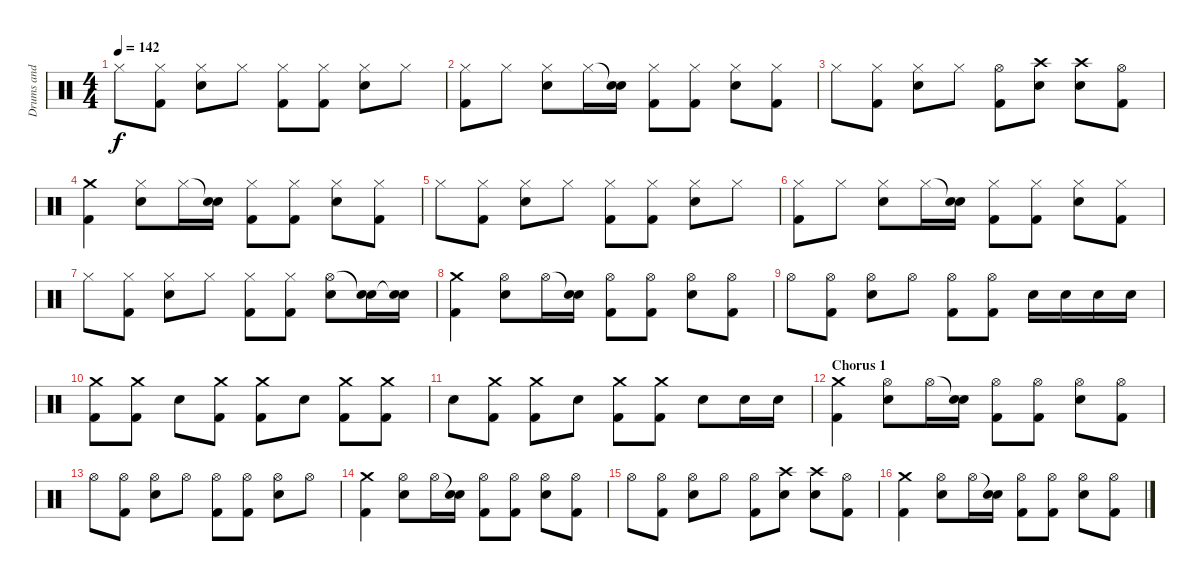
\track ("Drums and Percussion" "Drums and ") {instrument percussion}
\staff {score}
\articulation defaults
\ts (4 4)
\tempo 142
\clef neutral
\ks c "Hi-Hat (closed)".8{dy f}
("Hi-Hat (closed)" "Kick (hit) 2").8 ("Hi-Hat (closed)" "Electric Snare (hit)").8 "Hi-Hat (closed)".8 ("Hi-Hat (closed)" "Kick (hit) 2").8 ("Hi-Hat (closed)" "Kick (hit) 2").8 ("Hi-Hat (closed)" "Electric Snare (hit)").8 "Hi-Hat (closed)".8 |
("Hi-Hat (closed)" "Kick (hit) 2").8 "Hi-Hat (closed)".8 ("Hi-Hat (closed)" "Electric Snare (hit)").8 "Hi-Hat (closed)".16 ("Snare (hit)"{t} "Electric Snare (hit)").16 ("Hi-Hat (closed)" "Kick (hit) 2").8 ("Hi-Hat (closed)" "Kick (hit) 2").8 ("Hi-Hat (closed)" "Electric Snare (hit)").8 ("Hi-Hat (closed)" "Kick (hit) 2").8 |
"Hi-Hat (closed)".8 ("Hi-Hat (closed)" "Kick (hit) 2").8 ("Hi-Hat (closed)" "Electric Snare (hit)").8 "Hi-Hat (closed)".8 ("Hi-Hat (open)" "Kick (hit) 2").8 ("Crash high (hit)" "Electric Snare (hit)").8 ("Crash high (hit)" "Electric Snare (hit)").8 ("Hi-Hat (open)" "Kick (hit) 2").8 |
("Crash medium (hit)" "Kick (hit) 2").4 ("Hi-Hat (closed)" "Electric Snare (hit)").8 "Hi-Hat (closed)".16 ("Snare (hit)"{t} "Electric Snare (hit)").16 ("Hi-Hat (closed)" "Kick (hit) 2").8 ("Hi-Hat (closed)" "Kick (hit) 2").8 ("Hi-Hat (closed)" "Electric Snare (hit)").8 ("Hi-Hat (closed)" "Kick (hit) 2").8 |
"Hi-Hat (closed)".8 ("Hi-Hat (closed)" "Kick (hit) 2").8 ("Hi-Hat (closed)" "Electric Snare (hit)").8 "Hi-Hat (closed)".8 ("Hi-Hat (closed)" "Kick (hit) 2").8 ("Hi-Hat (closed)" "Kick (hit) 2").8 ("Hi-Hat (closed)" "Electric Snare (hit)").8 "Hi-Hat (closed)".8 |
("Hi-Hat (closed)" "Kick (hit) 2").8 "Hi-Hat (closed)".8 ("Hi-Hat (closed)" "Electric Snare (hit)").8 "Hi-Hat (closed)".16 ("Snare (hit)"{t} "Electric Snare (hit)").16 ("Hi-Hat (closed)" "Kick (hit) 2").8 ("Hi-Hat (closed)" "Kick (hit) 2").8 ("Hi-Hat (closed)" "Electric Snare (hit)").8 ("Hi-Hat (closed)" "Kick (hit) 2").8 |
"Hi-Hat (closed)".8 ("Hi-Hat (closed)" "Kick (hit) 2").8 ("Hi-Hat (closed)" "Electric Snare (hit)").8 "Hi-Hat (closed)".8 ("Hi-Hat (closed)" "Kick (hit) 2").8 ("Hi-Hat (closed)" "Kick (hit) 2").8 ("Hi-Hat (open)" "Electric Snare (hit)").8 ("Snare (hit)"{t} "Electric Snare (hit)").16 ("Snare (hit)"{t} "Electric Snare (hit)").16 |
("Crash medium (hit)" "Kick (hit) 2").4 ("Hi-Hat (open)" "Electric Snare (hit)").8 "Hi-Hat (open)".16 ("Snare (hit)"{t} "Electric Snare (hit)").16 ("Hi-Hat (open)" "Kick (hit) 2").8 ("Hi-Hat (open)" "Kick (hit) 2").8 ("Hi-Hat (open)" "Electric Snare (hit)").8 ("Hi-Hat (open)" "Kick (hit) 2").8 |
"Hi-Hat (open)".8 ("Hi-Hat (open)" "Kick (hit) 2").8 ("Hi-Hat (open)" "Electric Snare (hit)").8 "Hi-Hat (open)".8 ("Hi-Hat (open)" "Kick (hit) 2").8 ("Hi-Hat (open)" "Kick (hit) 2").8 "Electric Snare (hit)".16 "Electric Snare (hit)".16 "Electric Snare (hit)".16 "Electric Snare (hit)".16 |
("Crash medium (hit)" "Kick (hit) 2").8 ("Crash medium (hit)" "Kick (hit) 2").8 "Electric Snare (hit)".8 ("Crash medium (hit)" "Kick (hit) 2").8 ("Crash medium (hit)" "Kick (hit) 2").8 "Electric Snare (hit)".8 ("Crash medium (hit)" "Kick (hit) 2").8 ("Crash medium (hit)" "Kick (hit) 2").8 |
"Electric Snare (hit)".8 ("Crash medium (hit)" "Kick (hit) 2").8 ("Crash medium (hit)" "Kick (hit) 2").8 "Electric Snare (hit)".8 ("Crash medium (hit)" "Kick (hit) 2").8 ("Crash medium (hit)" "Kick (hit) 2").8 "Electric Snare (hit)".8 "Electric Snare (hit)".16 "Electric Snare (hit)".16 |
\section ("" "Chorus 1")
("Crash medium (hit)" "Kick (hit) 2").4 ("Hi-Hat (open)" "Electric Snare (hit)").8 "Hi-Hat (open)".16 ("Snare (hit)"{t} "Electric Snare (hit)").16 ("Hi-Hat (open)" "Kick (hit) 2").8 ("Hi-Hat (open)" "Kick (hit) 2").8 ("Hi-Hat (open)" "Electric Snare (hit)").8 ("Hi-Hat (open)" "Kick (hit) 2").8 |
"Hi-Hat (open)".8 ("Hi-Hat (open)" "Kick (hit) 2").8 ("Hi-Hat (open)" "Electric Snare (hit)").8 "Hi-Hat (open)".8 ("Hi-Hat (open)" "Kick (hit) 2").8 ("Hi-Hat (open)" "Kick (hit) 2").8 ("Hi-Hat (open)" "Electric Snare (hit)").8 "Hi-Hat (open)".8 |
("Crash medium (hit)" "Kick (hit) 2").4 ("Hi-Hat (open)" "Electric Snare (hit)").8 "Hi-Hat (open)".16 ("Snare (hit)"{t} "Electric Snare (hit)").16 ("Hi-Hat (open)" "Kick (hit) 2").8 ("Hi-Hat (open)" "Kick (hit) 2").8 ("Hi-Hat (open)" "Electric Snare (hit)").8 ("Hi-Hat (open)" "Kick (hit) 2").8 |
"Hi-Hat (open)".8 ("Hi-Hat (open)" "Kick (hit) 2").8 ("Hi-Hat (open)" "Electric Snare (hit)").8 "Hi-Hat (open)".8 ("Hi-Hat (open)" "Kick (hit) 2").8 ("Crash high (hit)" "Electric Snare (hit)").8 ("Crash high (hit)" "Electric Snare (hit)").8 ("Hi-Hat (open)" "Kick (hit) 2").8 |
("Crash medium (hit)" "Kick (hit) 2").4 ("Hi-Hat (open)" "Electric Snare (hit)").8 "Hi-Hat (open)".16 ("Snare (hit)"{t} "Electric Snare (hit)").16 ("Hi-Hat (open)" "Kick (hit) 2").8 ("Hi-Hat (open)" "Kick (hit) 2").8 ("Hi-Hat (open)" "Electric Snare (hit)").8 ("Hi-Hat (open)" "Kick (hit) 2").8
